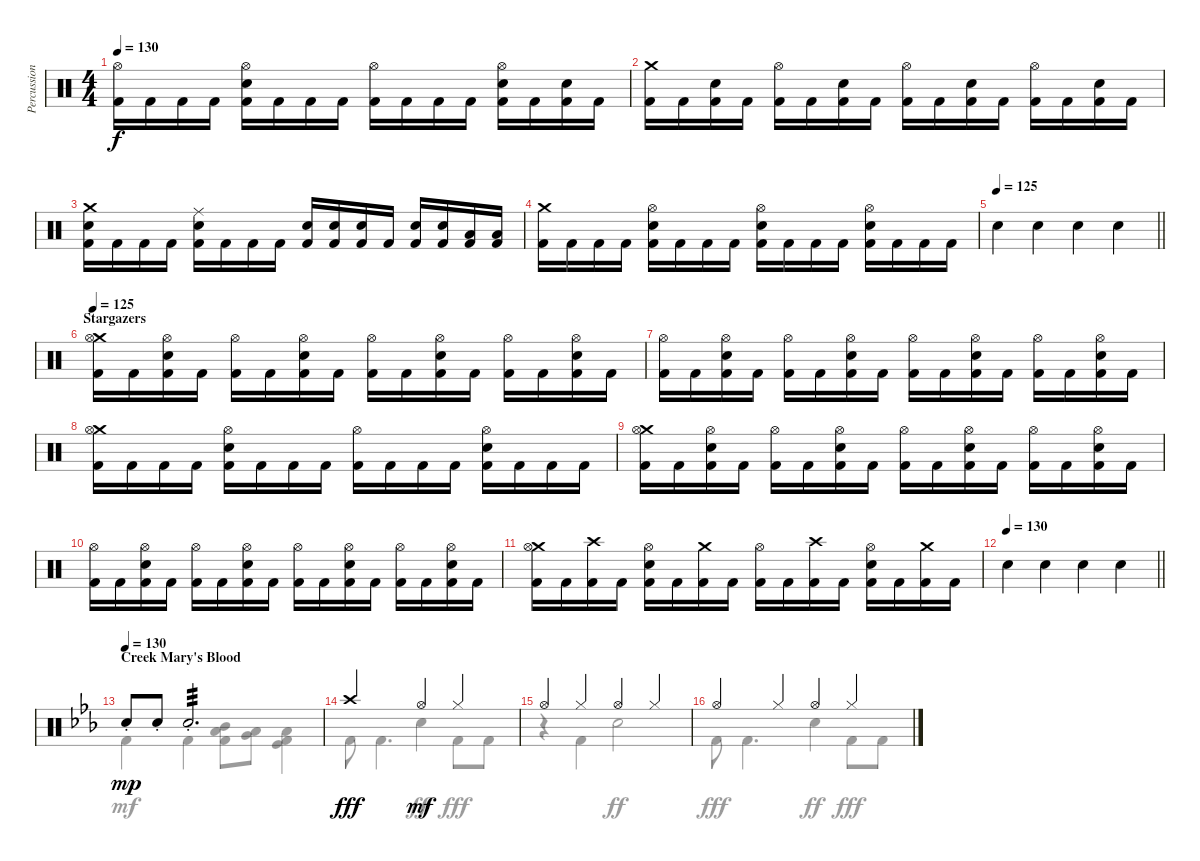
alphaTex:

\track ("Percussion" "Percussion") {instrument percussion}
\staff {score}
\articulation defaults
\voice
\ts (4 4)
\tempo 130
\clef neutral
\ks c
("Hi-Hat (open)" "Kick (hit) 2").16{dy f} "Kick (hit) 2".16 "Kick (hit) 2".16 "Kick (hit) 2".16 ("Hi-Hat (open)" "Electric Snare (hit)" "Kick (hit) 2").16 "Kick (hit) 2".16 "Kick (hit) 2".16 "Kick (hit) 2".16 ("Hi-Hat (open)" "Kick (hit) 2").16 "Kick (hit) 2".16 "Kick (hit) 2".16 "Kick (hit) 2".16 ("Hi-Hat (open)" "Electric Snare (hit)" "Kick (hit) 2").16 "Kick (hit) 2".16 ("Electric Snare (hit)" "Kick (hit) 2").16 "Kick (hit) 2".16 |
("Crash medium (hit)" "Kick (hit) 2").16 "Kick (hit) 2".16 ("Electric Snare (hit)" "Kick (hit) 2").16 "Kick (hit) 2".16 ("Hi-Hat (open)" "Kick (hit) 2").16 "Kick (hit) 2".16 ("Electric Snare (hit)" "Kick (hit) 2").16 "Kick (hit) 2".16 ("Hi-Hat (open)" "Kick (hit) 2").16 "Kick (hit) 2".16 ("Electric Snare (hit)" "Kick (hit) 2").16 "Kick (hit) 2".16 ("Hi-Hat (open)" "Kick (hit) 2").16 "Kick (hit) 2".16 ("Electric Snare (hit)" "Kick (hit) 2").16 "Kick (hit) 2".16 |
("Crash medium (hit)" "Electric Snare (hit)" "Kick (hit) 2").16 "Kick (hit) 2".16 "Kick (hit) 2".16 "Kick (hit) 2".16 ("Ride (middle)" "Electric Snare (hit)" "Kick (hit) 2").16 "Kick (hit) 2".16 "Kick (hit) 2".16 "Kick (hit) 2".16 ("Electric Snare (hit)" "Kick (hit) 2").16 ("Electric Snare (hit)" "Kick (hit) 2").16 ("Electric Snare (hit)" "Kick (hit) 2").16 "Kick (hit) 2".16 ("Electric Snare (hit)" "Kick (hit) 2").16 ("Electric Snare (hit)" "Kick (hit) 2").16 ("Low Tom (hit)" "Kick (hit) 2").16 ("Low Tom (hit)" "Kick (hit) 2").16 |
("Crash medium (hit)" "Kick (hit) 2").16 "Kick (hit) 2".16 "Kick (hit) 2".16 "Kick (hit) 2".16 ("Hi-Hat (open)" "Electric Snare (hit)" "Kick (hit) 2").16 "Kick (hit) 2".16 "Kick (hit) 2".16 "Kick (hit) 2".16 ("Hi-Hat (open)" "Electric Snare (hit)" "Kick (hit) 2").16 "Kick (hit) 2".16 "Kick (hit) 2".16 "Kick (hit) 2".16 ("Hi-Hat (open)" "Electric Snare (hit)" "Kick (hit) 2").16 "Kick (hit) 2".16 "Kick (hit) 2".16 "Kick (hit) 2".16 |
\tempo 125
\barLineRight lightlight "Electric Snare (hit)".4 "Electric Snare (hit)".4 "Electric Snare (hit)".4 "Electric Snare (hit)".4
|
\section ("" "Stargazers")
\tempo 125
("Crash medium (hit)" "Hi-Hat (open)" "Kick (hit) 2").16 "Kick (hit) 2".16 ("Hi-Hat (open)" "Electric Snare (hit)" "Kick (hit) 2").16 "Kick (hit) 2".16 ("Hi-Hat (open)" "Kick (hit) 2").16 "Kick (hit) 2".16 ("Hi-Hat (open)" "Electric Snare (hit)" "Kick (hit) 2").16 "Kick (hit) 2".16 ("Hi-Hat (open)" "Kick (hit) 2").16 "Kick (hit) 2".16 ("Hi-Hat (open)" "Electric Snare (hit)" "Kick (hit) 2").16 "Kick (hit) 2".16 ("Hi-Hat (open)" "Kick (hit) 2").16 "Kick (hit) 2".16 ("Hi-Hat (open)" "Electric Snare (hit)" "Kick (hit) 2").16 "Kick (hit) 2".16 |
("Hi-Hat (open)" "Kick (hit) 2").16 "Kick (hit) 2".16 ("Hi-Hat (open)" "Electric Snare (hit)" "Kick (hit) 2").16 "Kick (hit) 2".16 ("Hi-Hat (open)" "Kick (hit) 2").16 "Kick (hit) 2".16 ("Hi-Hat (open)" "Electric Snare (hit)" "Kick (hit) 2").16 "Kick (hit) 2".16 ("Hi-Hat (open)" "Kick (hit) 2").16 "Kick (hit) 2".16 ("Hi-Hat (open)" "Electric Snare (hit)" "Kick (hit) 2").16 "Kick (hit) 2".16 ("Hi-Hat (open)" "Kick (hit) 2").16 "Kick (hit) 2".16 ("Hi-Hat (open)" "Electric Snare (hit)" "Kick (hit) 2").16 "Kick (hit) 2".16 |
("Crash medium (hit)" "Hi-Hat (open)" "Kick (hit) 2").16 "Kick (hit) 2".16 "Kick (hit) 2".16 "Kick (hit) 2".16 ("Hi-Hat (open)" "Electric Snare (hit)" "Kick (hit) 2").16 "Kick (hit) 2".16 "Kick (hit) 2".16 "Kick (hit) 2".16 ("Hi-Hat (open)" "Kick (hit) 2").16 "Kick (hit) 2".16 "Kick (hit) 2".16 "Kick (hit) 2".16 ("Hi-Hat (open)" "Electric Snare (hit)" "Kick (hit) 2").16 "Kick (hit) 2".16 "Kick (hit) 2".16 "Kick (hit) 2".16 |
("Crash medium (hit)" "Hi-Hat (open)" "Kick (hit) 2").16 "Kick (hit) 2".16 ("Hi-Hat (open)" "Electric Snare (hit)" "Kick (hit) 2").16 "Kick (hit) 2".16 ("Hi-Hat (open)" "Kick (hit) 2").16 "Kick (hit) 2".16 ("Hi-Hat (open)" "Electric Snare (hit)" "Kick (hit) 2").16 "Kick (hit) 2".16 ("Hi-Hat (open)" "Kick (hit) 2").16 "Kick (hit) 2".16 ("Hi-Hat (open)" "Electric Snare (hit)" "Kick (hit) 2").16 "Kick (hit) 2".16 ("Hi-Hat (open)" "Kick (hit) 2").16 "Kick (hit) 2".16 ("Hi-Hat (open)" "Electric Snare (hit)" "Kick (hit) 2").16 "Kick (hit) 2".16 |
("Hi-Hat (open)" "Kick (hit) 2").16 "Kick (hit) 2".16 ("Hi-Hat (open)" "Electric Snare (hit)" "Kick (hit) 2").16 "Kick (hit) 2".16 ("Hi-Hat (open)" "Kick (hit) 2").16 "Kick (hit) 2".16 ("Hi-Hat (open)" "Electric Snare (hit)" "Kick (hit) 2").16 "Kick (hit) 2".16 ("Hi-Hat (open)" "Kick (hit) 2").16 "Kick (hit) 2".16 ("Hi-Hat (open)" "Electric Snare (hit)" "Kick (hit) 2").16 "Kick (hit) 2".16 ("Hi-Hat (open)" "Kick (hit) 2").16 "Kick (hit) 2".16 ("Hi-Hat (open)" "Electric Snare (hit)" "Kick (hit) 2").16 "Kick (hit) 2".16 |
("Crash medium (hit)" "Hi-Hat (open)" "Kick (hit) 2").16 "Kick (hit) 2".16 ("Crash high (hit)" "Kick (hit) 2").16 "Kick (hit) 2".16 ("Hi-Hat (open)" "Electric Snare (hit)" "Kick (hit) 2").16 "Kick (hit) 2".16 ("Crash medium (hit)" "Kick (hit) 2").16 "Kick (hit) 2".16 ("Hi-Hat (open)" "Kick (hit) 2").16 "Kick (hit) 2".16 ("Crash high (hit)" "Kick (hit) 2").16 "Kick (hit) 2".16 ("Hi-Hat (open)" "Electric Snare (hit)" "Kick (hit) 2").16 "Kick (hit) 2".16 ("Crash medium (hit)" "Kick (hit) 2").16 "Kick (hit) 2".16 |
\tempo 130
\barLineRight lightlight "Electric Snare (hit)".4 "Electric Snare (hit)".4 "Electric Snare (hit)".4 "Electric Snare (hit)".4
|
\section ("" "Creek Mary's Blood")
\tempo 130
\ks cminor "Electric Snare (hit)"{st}.8{dy mp} "Electric Snare (hit)"{st}.8 "Electric Snare (hit)"{st}.2{d tp 3}
|
"Crash high (hit)".2{dy fff} "Hi-Hat (open)".4{dy mf} "Hi-Hat (closed)".4 |
"Hi-Hat (open)".4 "Hi-Hat (closed)".4 "Hi-Hat (open)".4 "Hi-Hat (closed)".4 |
"Hi-Hat (open)".4 "Hi-Hat (closed)".4 "Hi-Hat (open)".4 "Hi-Hat (closed)".4
\voice
\clef neutral
\ottava regular
\simile none
\ks c
|
|
|
|
\barLineRight lightlight
|
|
|
|
|
|
|
\barLineRight lightlight
|
\ks cminor "Kick (hit) 2".4 "Kick (hit) 2".4
("Mid Tom (hit)" "Low Tom (hit)" "Kick (hit) 2").8 ("Low Tom (hit)" "Very Low Tom (hit)").8 ("Low Tom (hit)" "Kick (hit)" "Kick (hit) 2").4 |
"Kick (hit) 2".8 "Kick (hit) 2".4{d} "Electric Snare (hit)".4{dy ff} "Kick (hit) 2".8{dy fff} "Kick (hit) 2".8 |
r.4 "Kick (hit) 2".4 "Electric Snare (hit)".2{dy ff} |
"Kick (hit) 2".8{dy fff} "Kick (hit) 2".4{d} "Electric Snare (hit)".4{dy ff} "Kick (hit) 2".8{dy fff} "Kick (hit) 2".8
